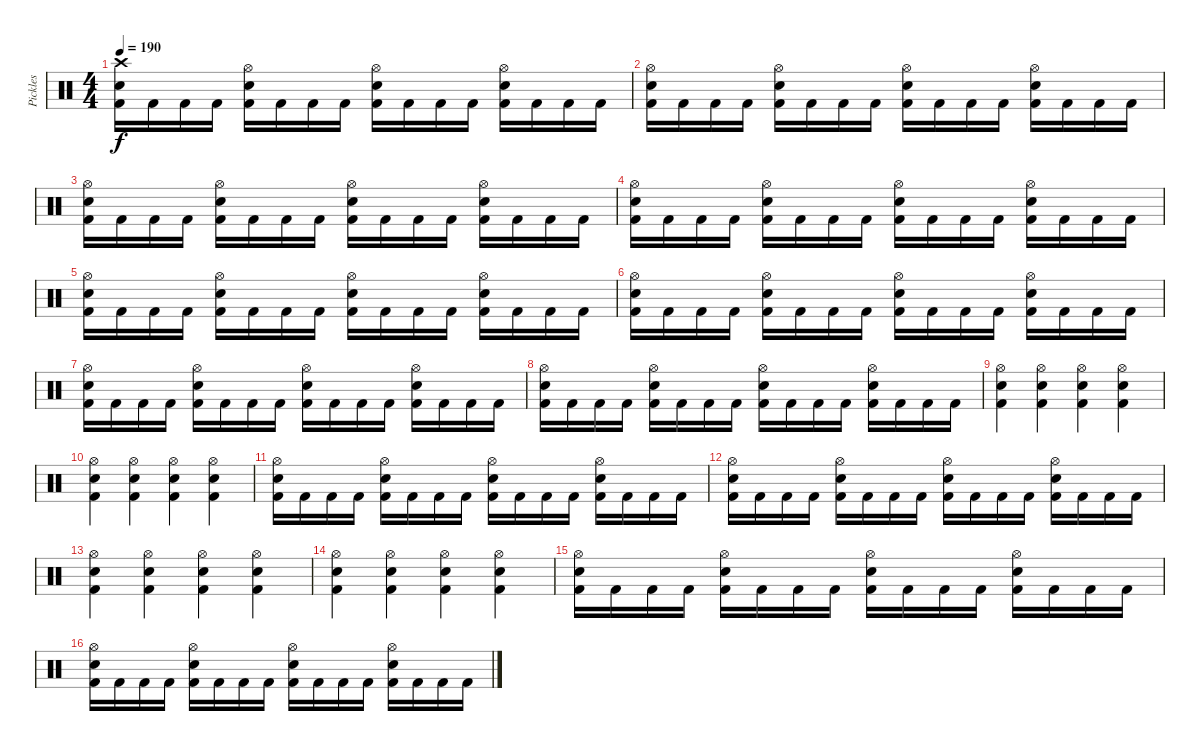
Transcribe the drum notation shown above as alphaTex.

\track ("Pickles" "Pickles") {instrument percussion}
\staff {score}
\articulation defaults
\ts (4 4)
\tempo 190
\clef neutral
\ks c
("Crash high (hit)" "Electric Snare (hit)" "Kick (hit) 2").16{dy f} "Kick (hit) 2".16 "Kick (hit) 2".16 "Kick (hit) 2".16 ("Hi-Hat (open)" "Electric Snare (hit)" "Kick (hit) 2").16 "Kick (hit) 2".16 "Kick (hit) 2".16 "Kick (hit) 2".16 ("Hi-Hat (open)" "Electric Snare (hit)" "Kick (hit) 2").16 "Kick (hit) 2".16 "Kick (hit) 2".16 "Kick (hit) 2".16 ("Hi-Hat (open)" "Electric Snare (hit)" "Kick (hit) 2").16 "Kick (hit) 2".16 "Kick (hit) 2".16 "Kick (hit) 2".16 |
("Hi-Hat (open)" "Electric Snare (hit)" "Kick (hit) 2").16 "Kick (hit) 2".16 "Kick (hit) 2".16 "Kick (hit) 2".16 ("Hi-Hat (open)" "Electric Snare (hit)" "Kick (hit) 2").16 "Kick (hit) 2".16 "Kick (hit) 2".16 "Kick (hit) 2".16 ("Hi-Hat (open)" "Electric Snare (hit)" "Kick (hit) 2").16 "Kick (hit) 2".16 "Kick (hit) 2".16 "Kick (hit) 2".16 ("Hi-Hat (open)" "Electric Snare (hit)" "Kick (hit) 2").16 "Kick (hit) 2".16 "Kick (hit) 2".16 "Kick (hit) 2".16 |
("Hi-Hat (open)" "Electric Snare (hit)" "Kick (hit) 2").16 "Kick (hit) 2".16 "Kick (hit) 2".16 "Kick (hit) 2".16 ("Hi-Hat (open)" "Electric Snare (hit)" "Kick (hit) 2").16 "Kick (hit) 2".16 "Kick (hit) 2".16 "Kick (hit) 2".16 ("Hi-Hat (open)" "Electric Snare (hit)" "Kick (hit) 2").16 "Kick (hit) 2".16 "Kick (hit) 2".16 "Kick (hit) 2".16 ("Hi-Hat (open)" "Electric Snare (hit)" "Kick (hit) 2").16 "Kick (hit) 2".16 "Kick (hit) 2".16 "Kick (hit) 2".16 |
("Hi-Hat (open)" "Electric Snare (hit)" "Kick (hit) 2").16 "Kick (hit) 2".16 "Kick (hit) 2".16 "Kick (hit) 2".16 ("Hi-Hat (open)" "Electric Snare (hit)" "Kick (hit) 2").16 "Kick (hit) 2".16 "Kick (hit) 2".16 "Kick (hit) 2".16 ("Hi-Hat (open)" "Electric Snare (hit)" "Kick (hit) 2").16 "Kick (hit) 2".16 "Kick (hit) 2".16 "Kick (hit) 2".16 ("Hi-Hat (open)" "Electric Snare (hit)" "Kick (hit) 2").16 "Kick (hit) 2".16 "Kick (hit) 2".16 "Kick (hit) 2".16 |
("Hi-Hat (open)" "Electric Snare (hit)" "Kick (hit) 2").16 "Kick (hit) 2".16 "Kick (hit) 2".16 "Kick (hit) 2".16 ("Hi-Hat (open)" "Electric Snare (hit)" "Kick (hit) 2").16 "Kick (hit) 2".16 "Kick (hit) 2".16 "Kick (hit) 2".16 ("Hi-Hat (open)" "Electric Snare (hit)" "Kick (hit) 2").16 "Kick (hit) 2".16 "Kick (hit) 2".16 "Kick (hit) 2".16 ("Hi-Hat (open)" "Electric Snare (hit)" "Kick (hit) 2").16 "Kick (hit) 2".16 "Kick (hit) 2".16 "Kick (hit) 2".16 |
("Hi-Hat (open)" "Electric Snare (hit)" "Kick (hit) 2").16 "Kick (hit) 2".16 "Kick (hit) 2".16 "Kick (hit) 2".16 ("Hi-Hat (open)" "Electric Snare (hit)" "Kick (hit) 2").16 "Kick (hit) 2".16 "Kick (hit) 2".16 "Kick (hit) 2".16 ("Hi-Hat (open)" "Electric Snare (hit)" "Kick (hit) 2").16 "Kick (hit) 2".16 "Kick (hit) 2".16 "Kick (hit) 2".16 ("Hi-Hat (open)" "Electric Snare (hit)" "Kick (hit) 2").16 "Kick (hit) 2".16 "Kick (hit) 2".16 "Kick (hit) 2".16 |
("Hi-Hat (open)" "Electric Snare (hit)" "Kick (hit) 2").16 "Kick (hit) 2".16 "Kick (hit) 2".16 "Kick (hit) 2".16 ("Hi-Hat (open)" "Electric Snare (hit)" "Kick (hit) 2").16 "Kick (hit) 2".16 "Kick (hit) 2".16 "Kick (hit) 2".16 ("Hi-Hat (open)" "Electric Snare (hit)" "Kick (hit) 2").16 "Kick (hit) 2".16 "Kick (hit) 2".16 "Kick (hit) 2".16 ("Hi-Hat (open)" "Electric Snare (hit)" "Kick (hit) 2").16 "Kick (hit) 2".16 "Kick (hit) 2".16 "Kick (hit) 2".16 |
("Hi-Hat (open)" "Electric Snare (hit)" "Kick (hit) 2").16 "Kick (hit) 2".16 "Kick (hit) 2".16 "Kick (hit) 2".16 ("Hi-Hat (open)" "Electric Snare (hit)" "Kick (hit) 2").16 "Kick (hit) 2".16 "Kick (hit) 2".16 "Kick (hit) 2".16 ("Hi-Hat (open)" "Electric Snare (hit)" "Kick (hit) 2").16 "Kick (hit) 2".16 "Kick (hit) 2".16 "Kick (hit) 2".16 ("Hi-Hat (open)" "Electric Snare (hit)" "Kick (hit) 2").16 "Kick (hit) 2".16 "Kick (hit) 2".16 "Kick (hit) 2".16 |
("Hi-Hat (open)" "Electric Snare (hit)" "Kick (hit) 2").4 ("Hi-Hat (open)" "Electric Snare (hit)" "Kick (hit) 2").4 ("Hi-Hat (open)" "Electric Snare (hit)" "Kick (hit) 2").4 ("Hi-Hat (open)" "Electric Snare (hit)" "Kick (hit) 2").4 |
("Hi-Hat (open)" "Electric Snare (hit)" "Kick (hit) 2").4 ("Hi-Hat (open)" "Electric Snare (hit)" "Kick (hit) 2").4 ("Hi-Hat (open)" "Electric Snare (hit)" "Kick (hit) 2").4 ("Hi-Hat (open)" "Electric Snare (hit)" "Kick (hit) 2").4 |
("Hi-Hat (open)" "Electric Snare (hit)" "Kick (hit) 2").16 "Kick (hit) 2".16 "Kick (hit) 2".16 "Kick (hit) 2".16 ("Hi-Hat (open)" "Electric Snare (hit)" "Kick (hit) 2").16 "Kick (hit) 2".16 "Kick (hit) 2".16 "Kick (hit) 2".16 ("Hi-Hat (open)" "Electric Snare (hit)" "Kick (hit) 2").16 "Kick (hit) 2".16 "Kick (hit) 2".16 "Kick (hit) 2".16 ("Hi-Hat (open)" "Electric Snare (hit)" "Kick (hit) 2").16 "Kick (hit) 2".16 "Kick (hit) 2".16 "Kick (hit) 2".16 |
("Hi-Hat (open)" "Electric Snare (hit)" "Kick (hit) 2").16 "Kick (hit) 2".16 "Kick (hit) 2".16 "Kick (hit) 2".16 ("Hi-Hat (open)" "Electric Snare (hit)" "Kick (hit) 2").16 "Kick (hit) 2".16 "Kick (hit) 2".16 "Kick (hit) 2".16 ("Hi-Hat (open)" "Electric Snare (hit)" "Kick (hit) 2").16 "Kick (hit) 2".16 "Kick (hit) 2".16 "Kick (hit) 2".16 ("Hi-Hat (open)" "Electric Snare (hit)" "Kick (hit) 2").16 "Kick (hit) 2".16 "Kick (hit) 2".16 "Kick (hit) 2".16 |
("Hi-Hat (open)" "Electric Snare (hit)" "Kick (hit) 2").4 ("Hi-Hat (open)" "Electric Snare (hit)" "Kick (hit) 2").4 ("Hi-Hat (open)" "Electric Snare (hit)" "Kick (hit) 2").4 ("Hi-Hat (open)" "Electric Snare (hit)" "Kick (hit) 2").4 |
("Hi-Hat (open)" "Electric Snare (hit)" "Kick (hit) 2").4 ("Hi-Hat (open)" "Electric Snare (hit)" "Kick (hit) 2").4 ("Hi-Hat (open)" "Electric Snare (hit)" "Kick (hit) 2").4 ("Hi-Hat (open)" "Electric Snare (hit)" "Kick (hit) 2").4 |
("Hi-Hat (open)" "Electric Snare (hit)" "Kick (hit) 2").16 "Kick (hit) 2".16 "Kick (hit) 2".16 "Kick (hit) 2".16 ("Hi-Hat (open)" "Electric Snare (hit)" "Kick (hit) 2").16 "Kick (hit) 2".16 "Kick (hit) 2".16 "Kick (hit) 2".16 ("Hi-Hat (open)" "Electric Snare (hit)" "Kick (hit) 2").16 "Kick (hit) 2".16 "Kick (hit) 2".16 "Kick (hit) 2".16 ("Hi-Hat (open)" "Electric Snare (hit)" "Kick (hit) 2").16 "Kick (hit) 2".16 "Kick (hit) 2".16 "Kick (hit) 2".16 |
("Hi-Hat (open)" "Electric Snare (hit)" "Kick (hit) 2").16 "Kick (hit) 2".16 "Kick (hit) 2".16 "Kick (hit) 2".16 ("Hi-Hat (open)" "Electric Snare (hit)" "Kick (hit) 2").16 "Kick (hit) 2".16 "Kick (hit) 2".16 "Kick (hit) 2".16 ("Hi-Hat (open)" "Electric Snare (hit)" "Kick (hit) 2").16 "Kick (hit) 2".16 "Kick (hit) 2".16 "Kick (hit) 2".16 ("Hi-Hat (open)" "Electric Snare (hit)" "Kick (hit) 2").16 "Kick (hit) 2".16 "Kick (hit) 2".16 "Kick (hit) 2".16
